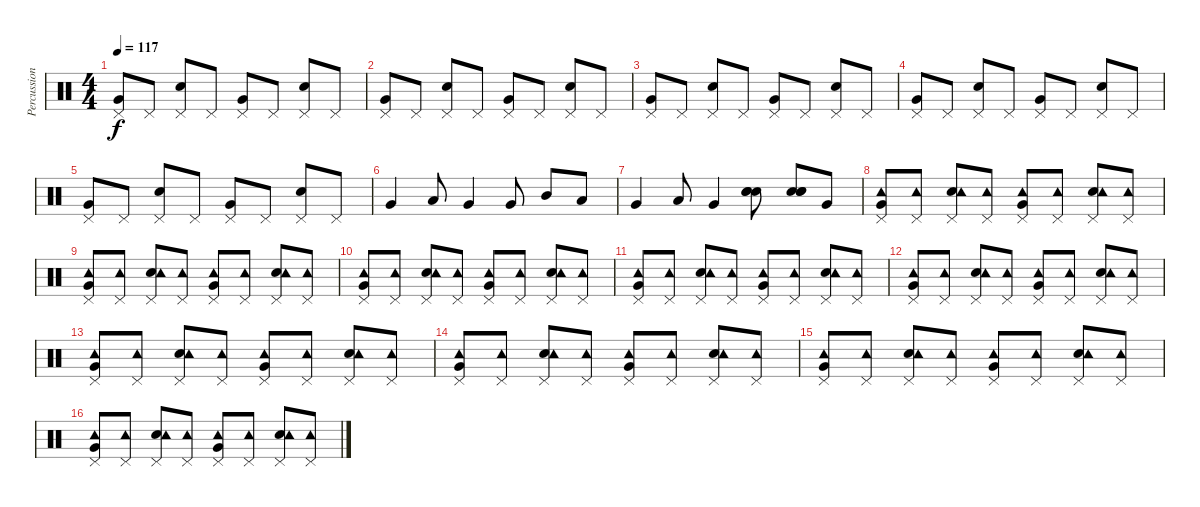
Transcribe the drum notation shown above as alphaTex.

\track ("Percussion" "Percussion") {instrument percussion}
\staff {score}
\articulation defaults
\ts (4 4)
\tempo 117
\clef neutral
\ks c
("Very Low Tom (hit)" "Pedal Hi-Hat (hit)").8{dy f} "Pedal Hi-Hat (hit)".8 ("Electric Snare (hit)" "Pedal Hi-Hat (hit)").8 "Pedal Hi-Hat (hit)".8 ("Very Low Tom (hit)" "Pedal Hi-Hat (hit)").8 "Pedal Hi-Hat (hit)".8 ("Electric Snare (hit)" "Pedal Hi-Hat (hit)").8 "Pedal Hi-Hat (hit)".8 |
("Very Low Tom (hit)" "Pedal Hi-Hat (hit)").8 "Pedal Hi-Hat (hit)".8 ("Electric Snare (hit)" "Pedal Hi-Hat (hit)").8 "Pedal Hi-Hat (hit)".8 ("Very Low Tom (hit)" "Pedal Hi-Hat (hit)").8 "Pedal Hi-Hat (hit)".8 ("Electric Snare (hit)" "Pedal Hi-Hat (hit)").8 "Pedal Hi-Hat (hit)".8 |
("Very Low Tom (hit)" "Pedal Hi-Hat (hit)").8 "Pedal Hi-Hat (hit)".8 ("Electric Snare (hit)" "Pedal Hi-Hat (hit)").8 "Pedal Hi-Hat (hit)".8 ("Very Low Tom (hit)" "Pedal Hi-Hat (hit)").8 "Pedal Hi-Hat (hit)".8 ("Electric Snare (hit)" "Pedal Hi-Hat (hit)").8 "Pedal Hi-Hat (hit)".8 |
("Very Low Tom (hit)" "Pedal Hi-Hat (hit)").8 "Pedal Hi-Hat (hit)".8 ("Electric Snare (hit)" "Pedal Hi-Hat (hit)").8 "Pedal Hi-Hat (hit)".8 ("Very Low Tom (hit)" "Pedal Hi-Hat (hit)").8 "Pedal Hi-Hat (hit)".8 ("Electric Snare (hit)" "Pedal Hi-Hat (hit)").8 "Pedal Hi-Hat (hit)".8 |
("Very Low Tom (hit)" "Pedal Hi-Hat (hit)").8 "Pedal Hi-Hat (hit)".8 ("Electric Snare (hit)" "Pedal Hi-Hat (hit)").8 "Pedal Hi-Hat (hit)".8 ("Very Low Tom (hit)" "Pedal Hi-Hat (hit)").8 "Pedal Hi-Hat (hit)".8 ("Electric Snare (hit)" "Pedal Hi-Hat (hit)").8 "Pedal Hi-Hat (hit)".8 |
"Very Low Tom (hit)".4 "Low Tom (hit)".8 "Very Low Tom (hit)".4 "Very Low Tom (hit)".8 "Mid Tom (hit)".8 "Low Tom (hit)".8 |
"Very Low Tom (hit)".4 "Low Tom (hit)".8 "Very Low Tom (hit)".4 ("Electric Snare (hit)" "Electric Snare (hit)" "Snare (hit) 2").8 ("Electric Snare (hit)" "Electric Snare (hit)" "Snare (hit) 2").8 "Very Low Tom (hit)".8 |
("Very Low Tom (hit)" "Pedal Hi-Hat (hit)" "Tambourine (hit)").8 ("Pedal Hi-Hat (hit)" "Tambourine (hit)").8 ("Electric Snare (hit)" "Pedal Hi-Hat (hit)" "Tambourine (hit)").8 ("Pedal Hi-Hat (hit)" "Tambourine (hit)").8 ("Very Low Tom (hit)" "Pedal Hi-Hat (hit)" "Tambourine (hit)").8 ("Pedal Hi-Hat (hit)" "Tambourine (hit)").8 ("Electric Snare (hit)" "Pedal Hi-Hat (hit)" "Tambourine (hit)").8 ("Pedal Hi-Hat (hit)" "Tambourine (hit)").8 |
("Very Low Tom (hit)" "Pedal Hi-Hat (hit)" "Tambourine (hit)").8 ("Pedal Hi-Hat (hit)" "Tambourine (hit)").8 ("Electric Snare (hit)" "Pedal Hi-Hat (hit)" "Tambourine (hit)").8 ("Pedal Hi-Hat (hit)" "Tambourine (hit)").8 ("Very Low Tom (hit)" "Pedal Hi-Hat (hit)" "Tambourine (hit)").8 ("Pedal Hi-Hat (hit)" "Tambourine (hit)").8 ("Electric Snare (hit)" "Pedal Hi-Hat (hit)" "Tambourine (hit)").8 ("Pedal Hi-Hat (hit)" "Tambourine (hit)").8 |
("Very Low Tom (hit)" "Pedal Hi-Hat (hit)" "Tambourine (hit)").8 ("Pedal Hi-Hat (hit)" "Tambourine (hit)").8 ("Electric Snare (hit)" "Pedal Hi-Hat (hit)" "Tambourine (hit)").8 ("Pedal Hi-Hat (hit)" "Tambourine (hit)").8 ("Very Low Tom (hit)" "Pedal Hi-Hat (hit)" "Tambourine (hit)").8 ("Pedal Hi-Hat (hit)" "Tambourine (hit)").8 ("Electric Snare (hit)" "Pedal Hi-Hat (hit)" "Tambourine (hit)").8 ("Pedal Hi-Hat (hit)" "Tambourine (hit)").8 |
("Very Low Tom (hit)" "Pedal Hi-Hat (hit)" "Tambourine (hit)").8 ("Pedal Hi-Hat (hit)" "Tambourine (hit)").8 ("Electric Snare (hit)" "Pedal Hi-Hat (hit)" "Tambourine (hit)").8 ("Pedal Hi-Hat (hit)" "Tambourine (hit)").8 ("Very Low Tom (hit)" "Pedal Hi-Hat (hit)" "Tambourine (hit)").8 ("Pedal Hi-Hat (hit)" "Tambourine (hit)").8 ("Electric Snare (hit)" "Pedal Hi-Hat (hit)" "Tambourine (hit)").8 ("Pedal Hi-Hat (hit)" "Tambourine (hit)").8 |
("Very Low Tom (hit)" "Pedal Hi-Hat (hit)" "Tambourine (hit)").8 ("Pedal Hi-Hat (hit)" "Tambourine (hit)").8 ("Electric Snare (hit)" "Pedal Hi-Hat (hit)" "Tambourine (hit)").8 ("Pedal Hi-Hat (hit)" "Tambourine (hit)").8 ("Very Low Tom (hit)" "Pedal Hi-Hat (hit)" "Tambourine (hit)").8 ("Pedal Hi-Hat (hit)" "Tambourine (hit)").8 ("Electric Snare (hit)" "Pedal Hi-Hat (hit)" "Tambourine (hit)").8 ("Pedal Hi-Hat (hit)" "Tambourine (hit)").8 |
("Very Low Tom (hit)" "Pedal Hi-Hat (hit)" "Tambourine (hit)").8 ("Pedal Hi-Hat (hit)" "Tambourine (hit)").8 ("Electric Snare (hit)" "Pedal Hi-Hat (hit)" "Tambourine (hit)").8 ("Pedal Hi-Hat (hit)" "Tambourine (hit)").8 ("Very Low Tom (hit)" "Pedal Hi-Hat (hit)" "Tambourine (hit)").8 ("Pedal Hi-Hat (hit)" "Tambourine (hit)").8 ("Electric Snare (hit)" "Pedal Hi-Hat (hit)" "Tambourine (hit)").8 ("Pedal Hi-Hat (hit)" "Tambourine (hit)").8 |
("Very Low Tom (hit)" "Pedal Hi-Hat (hit)" "Tambourine (hit)").8 ("Pedal Hi-Hat (hit)" "Tambourine (hit)").8 ("Electric Snare (hit)" "Pedal Hi-Hat (hit)" "Tambourine (hit)").8 ("Pedal Hi-Hat (hit)" "Tambourine (hit)").8 ("Very Low Tom (hit)" "Pedal Hi-Hat (hit)" "Tambourine (hit)").8 ("Pedal Hi-Hat (hit)" "Tambourine (hit)").8 ("Electric Snare (hit)" "Pedal Hi-Hat (hit)" "Tambourine (hit)").8 ("Pedal Hi-Hat (hit)" "Tambourine (hit)").8 |
("Very Low Tom (hit)" "Pedal Hi-Hat (hit)" "Tambourine (hit)").8 ("Pedal Hi-Hat (hit)" "Tambourine (hit)").8 ("Electric Snare (hit)" "Pedal Hi-Hat (hit)" "Tambourine (hit)").8 ("Pedal Hi-Hat (hit)" "Tambourine (hit)").8 ("Very Low Tom (hit)" "Pedal Hi-Hat (hit)" "Tambourine (hit)").8 ("Pedal Hi-Hat (hit)" "Tambourine (hit)").8 ("Electric Snare (hit)" "Pedal Hi-Hat (hit)" "Tambourine (hit)").8 ("Pedal Hi-Hat (hit)" "Tambourine (hit)").8 |
("Very Low Tom (hit)" "Pedal Hi-Hat (hit)" "Tambourine (hit)").8 ("Pedal Hi-Hat (hit)" "Tambourine (hit)").8 ("Electric Snare (hit)" "Pedal Hi-Hat (hit)" "Tambourine (hit)").8 ("Pedal Hi-Hat (hit)" "Tambourine (hit)").8 ("Very Low Tom (hit)" "Pedal Hi-Hat (hit)" "Tambourine (hit)").8 ("Pedal Hi-Hat (hit)" "Tambourine (hit)").8 ("Electric Snare (hit)" "Pedal Hi-Hat (hit)" "Tambourine (hit)").8 ("Pedal Hi-Hat (hit)" "Tambourine (hit)").8
